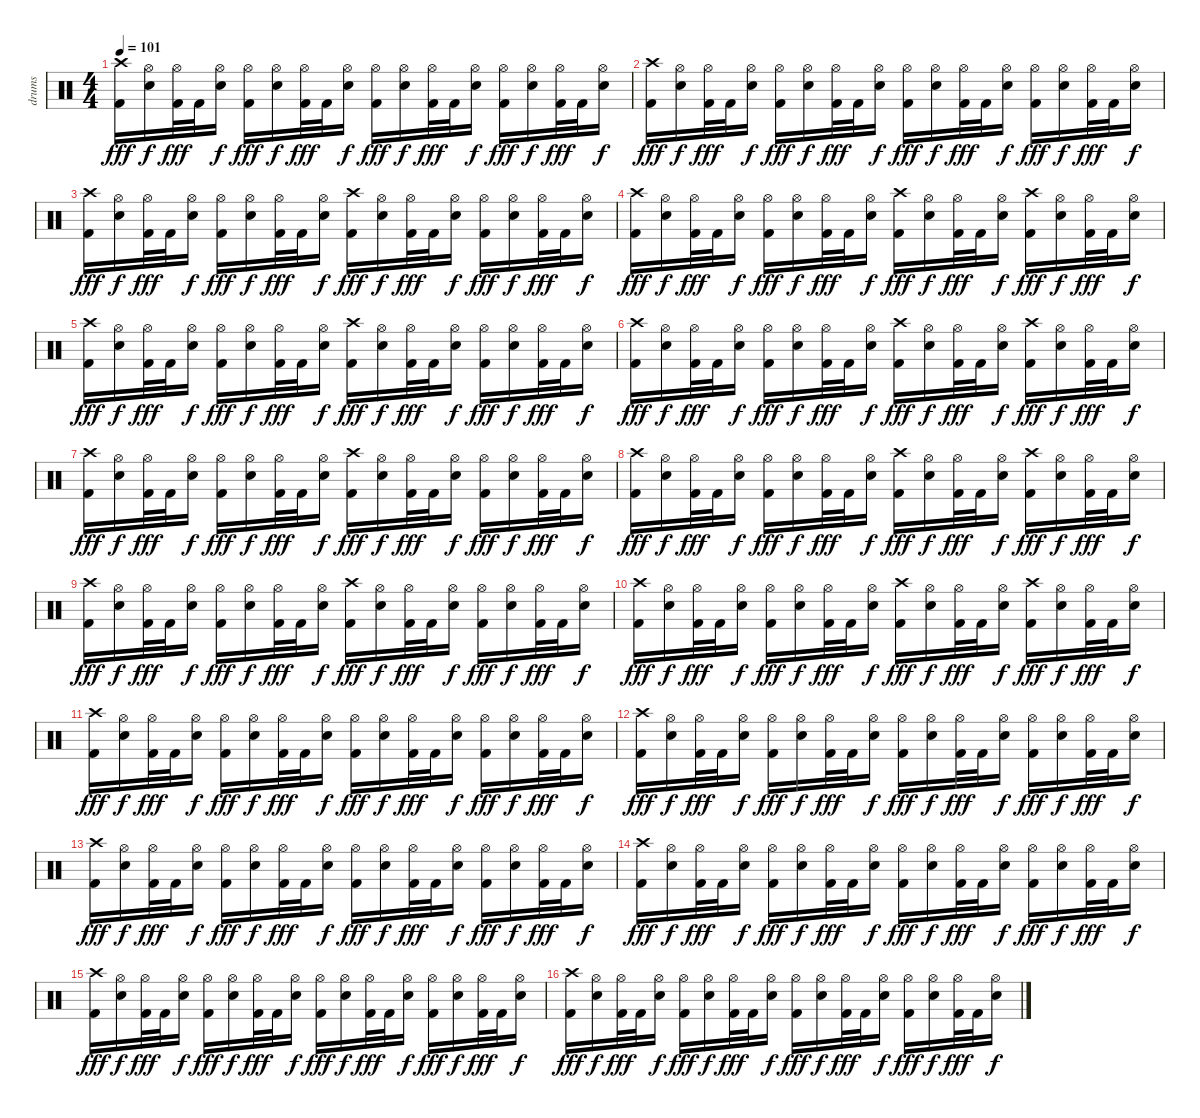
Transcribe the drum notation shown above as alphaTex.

\track ("drums" "drums") {instrument percussion}
\staff {score}
\articulation defaults
\ts (4 4)
\tempo 101
\clef neutral
\ks c
("Crash high (hit)" "Kick (hit) 2").16{dy fff} ("Hi-Hat (open)" "Snare (hit) 2").16{dy f} ("Hi-Hat (open)" "Kick (hit) 2").32{dy fff} "Kick (hit) 2".32 ("Hi-Hat (open)" "Snare (hit) 2").16{dy f} ("Hi-Hat (open)" "Kick (hit) 2").16{dy fff} ("Hi-Hat (open)" "Snare (hit) 2").16{dy f} ("Hi-Hat (open)" "Kick (hit) 2").32{dy fff} "Kick (hit) 2".32 ("Hi-Hat (open)" "Snare (hit) 2").16{dy f} ("Hi-Hat (open)" "Kick (hit) 2").16{dy fff} ("Hi-Hat (open)" "Snare (hit) 2").16{dy f} ("Hi-Hat (open)" "Kick (hit) 2").32{dy fff} "Kick (hit) 2".32 ("Hi-Hat (open)" "Snare (hit) 2").16{dy f} ("Hi-Hat (open)" "Kick (hit) 2").16{dy fff} ("Hi-Hat (open)" "Snare (hit) 2").16{dy f} ("Hi-Hat (open)" "Kick (hit) 2").32{dy fff} "Kick (hit) 2".32 ("Hi-Hat (open)" "Snare (hit) 2").16{dy f} |
("Crash high (hit)" "Kick (hit) 2").16{dy fff} ("Hi-Hat (open)" "Snare (hit) 2").16{dy f} ("Hi-Hat (open)" "Kick (hit) 2").32{dy fff} "Kick (hit) 2".32 ("Hi-Hat (open)" "Snare (hit) 2").16{dy f} ("Hi-Hat (open)" "Kick (hit) 2").16{dy fff} ("Hi-Hat (open)" "Snare (hit) 2").16{dy f} ("Hi-Hat (open)" "Kick (hit) 2").32{dy fff} "Kick (hit) 2".32 ("Hi-Hat (open)" "Snare (hit) 2").16{dy f} ("Hi-Hat (open)" "Kick (hit) 2").16{dy fff} ("Hi-Hat (open)" "Snare (hit) 2").16{dy f} ("Hi-Hat (open)" "Kick (hit) 2").32{dy fff} "Kick (hit) 2".32 ("Hi-Hat (open)" "Snare (hit) 2").16{dy f} ("Hi-Hat (open)" "Kick (hit) 2").16{dy fff} ("Hi-Hat (open)" "Snare (hit) 2").16{dy f} ("Hi-Hat (open)" "Kick (hit) 2").32{dy fff} "Kick (hit) 2".32 ("Hi-Hat (open)" "Snare (hit) 2").16{dy f} |
("Crash high (hit)" "Kick (hit) 2").16{dy fff} ("Hi-Hat (open)" "Snare (hit) 2").16{dy f} ("Hi-Hat (open)" "Kick (hit) 2").32{dy fff} "Kick (hit) 2".32 ("Hi-Hat (open)" "Snare (hit) 2").16{dy f} ("Hi-Hat (open)" "Kick (hit) 2").16{dy fff} ("Hi-Hat (open)" "Snare (hit) 2").16{dy f} ("Hi-Hat (open)" "Kick (hit) 2").32{dy fff} "Kick (hit) 2".32 ("Hi-Hat (open)" "Snare (hit) 2").16{dy f} ("Crash high (hit)" "Kick (hit) 2").16{dy fff} ("Hi-Hat (open)" "Snare (hit) 2").16{dy f} ("Hi-Hat (open)" "Kick (hit) 2").32{dy fff} "Kick (hit) 2".32 ("Hi-Hat (open)" "Snare (hit) 2").16{dy f} ("Hi-Hat (open)" "Kick (hit) 2").16{dy fff} ("Hi-Hat (open)" "Snare (hit) 2").16{dy f} ("Hi-Hat (open)" "Kick (hit) 2").32{dy fff} "Kick (hit) 2".32 ("Hi-Hat (open)" "Snare (hit) 2").16{dy f} |
("Crash high (hit)" "Kick (hit) 2").16{dy fff} ("Hi-Hat (open)" "Snare (hit) 2").16{dy f} ("Hi-Hat (open)" "Kick (hit) 2").32{dy fff} "Kick (hit) 2".32 ("Hi-Hat (open)" "Snare (hit) 2").16{dy f} ("Hi-Hat (open)" "Kick (hit) 2").16{dy fff} ("Hi-Hat (open)" "Snare (hit) 2").16{dy f} ("Hi-Hat (open)" "Kick (hit) 2").32{dy fff} "Kick (hit) 2".32 ("Hi-Hat (open)" "Snare (hit) 2").16{dy f} ("Crash high (hit)" "Kick (hit) 2").16{dy fff} ("Hi-Hat (open)" "Snare (hit) 2").16{dy f} ("Hi-Hat (open)" "Kick (hit) 2").32{dy fff} "Kick (hit) 2".32 ("Hi-Hat (open)" "Snare (hit) 2").16{dy f} ("Crash high (hit)" "Kick (hit) 2").16{dy fff} ("Hi-Hat (open)" "Snare (hit) 2").16{dy f} ("Hi-Hat (open)" "Kick (hit) 2").32{dy fff} "Kick (hit) 2".32 ("Hi-Hat (open)" "Snare (hit) 2").16{dy f} |
("Crash high (hit)" "Kick (hit) 2").16{dy fff} ("Hi-Hat (open)" "Snare (hit) 2").16{dy f} ("Hi-Hat (open)" "Kick (hit) 2").32{dy fff} "Kick (hit) 2".32 ("Hi-Hat (open)" "Snare (hit) 2").16{dy f} ("Hi-Hat (open)" "Kick (hit) 2").16{dy fff} ("Hi-Hat (open)" "Snare (hit) 2").16{dy f} ("Hi-Hat (open)" "Kick (hit) 2").32{dy fff} "Kick (hit) 2".32 ("Hi-Hat (open)" "Snare (hit) 2").16{dy f} ("Crash high (hit)" "Kick (hit) 2").16{dy fff} ("Hi-Hat (open)" "Snare (hit) 2").16{dy f} ("Hi-Hat (open)" "Kick (hit) 2").32{dy fff} "Kick (hit) 2".32 ("Hi-Hat (open)" "Snare (hit) 2").16{dy f} ("Hi-Hat (open)" "Kick (hit) 2").16{dy fff} ("Hi-Hat (open)" "Snare (hit) 2").16{dy f} ("Hi-Hat (open)" "Kick (hit) 2").32{dy fff} "Kick (hit) 2".32 ("Hi-Hat (open)" "Snare (hit) 2").16{dy f} |
("Crash high (hit)" "Kick (hit) 2").16{dy fff} ("Hi-Hat (open)" "Snare (hit) 2").16{dy f} ("Hi-Hat (open)" "Kick (hit) 2").32{dy fff} "Kick (hit) 2".32 ("Hi-Hat (open)" "Snare (hit) 2").16{dy f} ("Hi-Hat (open)" "Kick (hit) 2").16{dy fff} ("Hi-Hat (open)" "Snare (hit) 2").16{dy f} ("Hi-Hat (open)" "Kick (hit) 2").32{dy fff} "Kick (hit) 2".32 ("Hi-Hat (open)" "Snare (hit) 2").16{dy f} ("Crash high (hit)" "Kick (hit) 2").16{dy fff} ("Hi-Hat (open)" "Snare (hit) 2").16{dy f} ("Hi-Hat (open)" "Kick (hit) 2").32{dy fff} "Kick (hit) 2".32 ("Hi-Hat (open)" "Snare (hit) 2").16{dy f} ("Crash high (hit)" "Kick (hit) 2").16{dy fff} ("Hi-Hat (open)" "Snare (hit) 2").16{dy f} ("Hi-Hat (open)" "Kick (hit) 2").32{dy fff} "Kick (hit) 2".32 ("Hi-Hat (open)" "Snare (hit) 2").16{dy f} |
("Crash high (hit)" "Kick (hit) 2").16{dy fff} ("Hi-Hat (open)" "Snare (hit) 2").16{dy f} ("Hi-Hat (open)" "Kick (hit) 2").32{dy fff} "Kick (hit) 2".32 ("Hi-Hat (open)" "Snare (hit) 2").16{dy f} ("Hi-Hat (open)" "Kick (hit) 2").16{dy fff} ("Hi-Hat (open)" "Snare (hit) 2").16{dy f} ("Hi-Hat (open)" "Kick (hit) 2").32{dy fff} "Kick (hit) 2".32 ("Hi-Hat (open)" "Snare (hit) 2").16{dy f} ("Crash high (hit)" "Kick (hit) 2").16{dy fff} ("Hi-Hat (open)" "Snare (hit) 2").16{dy f} ("Hi-Hat (open)" "Kick (hit) 2").32{dy fff} "Kick (hit) 2".32 ("Hi-Hat (open)" "Snare (hit) 2").16{dy f} ("Hi-Hat (open)" "Kick (hit) 2").16{dy fff} ("Hi-Hat (open)" "Snare (hit) 2").16{dy f} ("Hi-Hat (open)" "Kick (hit) 2").32{dy fff} "Kick (hit) 2".32 ("Hi-Hat (open)" "Snare (hit) 2").16{dy f} |
("Crash high (hit)" "Kick (hit) 2").16{dy fff} ("Hi-Hat (open)" "Snare (hit) 2").16{dy f} ("Hi-Hat (open)" "Kick (hit) 2").32{dy fff} "Kick (hit) 2".32 ("Hi-Hat (open)" "Snare (hit) 2").16{dy f} ("Hi-Hat (open)" "Kick (hit) 2").16{dy fff} ("Hi-Hat (open)" "Snare (hit) 2").16{dy f} ("Hi-Hat (open)" "Kick (hit) 2").32{dy fff} "Kick (hit) 2".32 ("Hi-Hat (open)" "Snare (hit) 2").16{dy f} ("Crash high (hit)" "Kick (hit) 2").16{dy fff} ("Hi-Hat (open)" "Snare (hit) 2").16{dy f} ("Hi-Hat (open)" "Kick (hit) 2").32{dy fff} "Kick (hit) 2".32 ("Hi-Hat (open)" "Snare (hit) 2").16{dy f} ("Crash high (hit)" "Kick (hit) 2").16{dy fff} ("Hi-Hat (open)" "Snare (hit) 2").16{dy f} ("Hi-Hat (open)" "Kick (hit) 2").32{dy fff} "Kick (hit) 2".32 ("Hi-Hat (open)" "Snare (hit) 2").16{dy f} |
("Crash high (hit)" "Kick (hit) 2").16{dy fff} ("Hi-Hat (open)" "Snare (hit) 2").16{dy f} ("Hi-Hat (open)" "Kick (hit) 2").32{dy fff} "Kick (hit) 2".32 ("Hi-Hat (open)" "Snare (hit) 2").16{dy f} ("Hi-Hat (open)" "Kick (hit) 2").16{dy fff} ("Hi-Hat (open)" "Snare (hit) 2").16{dy f} ("Hi-Hat (open)" "Kick (hit) 2").32{dy fff} "Kick (hit) 2".32 ("Hi-Hat (open)" "Snare (hit) 2").16{dy f} ("Crash high (hit)" "Kick (hit) 2").16{dy fff} ("Hi-Hat (open)" "Snare (hit) 2").16{dy f} ("Hi-Hat (open)" "Kick (hit) 2").32{dy fff} "Kick (hit) 2".32 ("Hi-Hat (open)" "Snare (hit) 2").16{dy f} ("Hi-Hat (open)" "Kick (hit) 2").16{dy fff} ("Hi-Hat (open)" "Snare (hit) 2").16{dy f} ("Hi-Hat (open)" "Kick (hit) 2").32{dy fff} "Kick (hit) 2".32 ("Hi-Hat (open)" "Snare (hit) 2").16{dy f} |
("Crash high (hit)" "Kick (hit) 2").16{dy fff} ("Hi-Hat (open)" "Snare (hit) 2").16{dy f} ("Hi-Hat (open)" "Kick (hit) 2").32{dy fff} "Kick (hit) 2".32 ("Hi-Hat (open)" "Snare (hit) 2").16{dy f} ("Hi-Hat (open)" "Kick (hit) 2").16{dy fff} ("Hi-Hat (open)" "Snare (hit) 2").16{dy f} ("Hi-Hat (open)" "Kick (hit) 2").32{dy fff} "Kick (hit) 2".32 ("Hi-Hat (open)" "Snare (hit) 2").16{dy f} ("Crash high (hit)" "Kick (hit) 2").16{dy fff} ("Hi-Hat (open)" "Snare (hit) 2").16{dy f} ("Hi-Hat (open)" "Kick (hit) 2").32{dy fff} "Kick (hit) 2".32 ("Hi-Hat (open)" "Snare (hit) 2").16{dy f} ("Crash high (hit)" "Kick (hit) 2").16{dy fff} ("Hi-Hat (open)" "Snare (hit) 2").16{dy f} ("Hi-Hat (open)" "Kick (hit) 2").32{dy fff} "Kick (hit) 2".32 ("Hi-Hat (open)" "Snare (hit) 2").16{dy f} |
("Crash high (hit)" "Kick (hit) 2").16{dy fff} ("Hi-Hat (open)" "Snare (hit) 2").16{dy f} ("Hi-Hat (open)" "Kick (hit) 2").32{dy fff} "Kick (hit) 2".32 ("Hi-Hat (open)" "Snare (hit) 2").16{dy f} ("Hi-Hat (open)" "Kick (hit) 2").16{dy fff} ("Hi-Hat (open)" "Snare (hit) 2").16{dy f} ("Hi-Hat (open)" "Kick (hit) 2").32{dy fff} "Kick (hit) 2".32 ("Hi-Hat (open)" "Snare (hit) 2").16{dy f} ("Hi-Hat (open)" "Kick (hit) 2").16{dy fff} ("Hi-Hat (open)" "Snare (hit) 2").16{dy f} ("Hi-Hat (open)" "Kick (hit) 2").32{dy fff} "Kick (hit) 2".32 ("Hi-Hat (open)" "Snare (hit) 2").16{dy f} ("Hi-Hat (open)" "Kick (hit) 2").16{dy fff} ("Hi-Hat (open)" "Snare (hit) 2").16{dy f} ("Hi-Hat (open)" "Kick (hit) 2").32{dy fff} "Kick (hit) 2".32 ("Hi-Hat (open)" "Snare (hit) 2").16{dy f} |
("Crash high (hit)" "Kick (hit) 2").16{dy fff} ("Hi-Hat (open)" "Snare (hit) 2").16{dy f} ("Hi-Hat (open)" "Kick (hit) 2").32{dy fff} "Kick (hit) 2".32 ("Hi-Hat (open)" "Snare (hit) 2").16{dy f} ("Hi-Hat (open)" "Kick (hit) 2").16{dy fff} ("Hi-Hat (open)" "Snare (hit) 2").16{dy f} ("Hi-Hat (open)" "Kick (hit) 2").32{dy fff} "Kick (hit) 2".32 ("Hi-Hat (open)" "Snare (hit) 2").16{dy f} ("Hi-Hat (open)" "Kick (hit) 2").16{dy fff} ("Hi-Hat (open)" "Snare (hit) 2").16{dy f} ("Hi-Hat (open)" "Kick (hit) 2").32{dy fff} "Kick (hit) 2".32 ("Hi-Hat (open)" "Snare (hit) 2").16{dy f} ("Hi-Hat (open)" "Kick (hit) 2").16{dy fff} ("Hi-Hat (open)" "Snare (hit) 2").16{dy f} ("Hi-Hat (open)" "Kick (hit) 2").32{dy fff} "Kick (hit) 2".32 ("Hi-Hat (open)" "Snare (hit) 2").16{dy f} |
("Crash high (hit)" "Kick (hit) 2").16{dy fff} ("Hi-Hat (open)" "Snare (hit) 2").16{dy f} ("Hi-Hat (open)" "Kick (hit) 2").32{dy fff} "Kick (hit) 2".32 ("Hi-Hat (open)" "Snare (hit) 2").16{dy f} ("Hi-Hat (open)" "Kick (hit) 2").16{dy fff} ("Hi-Hat (open)" "Snare (hit) 2").16{dy f} ("Hi-Hat (open)" "Kick (hit) 2").32{dy fff} "Kick (hit) 2".32 ("Hi-Hat (open)" "Snare (hit) 2").16{dy f} ("Hi-Hat (open)" "Kick (hit) 2").16{dy fff} ("Hi-Hat (open)" "Snare (hit) 2").16{dy f} ("Hi-Hat (open)" "Kick (hit) 2").32{dy fff} "Kick (hit) 2".32 ("Hi-Hat (open)" "Snare (hit) 2").16{dy f} ("Hi-Hat (open)" "Kick (hit) 2").16{dy fff} ("Hi-Hat (open)" "Snare (hit) 2").16{dy f} ("Hi-Hat (open)" "Kick (hit) 2").32{dy fff} "Kick (hit) 2".32 ("Hi-Hat (open)" "Snare (hit) 2").16{dy f} |
("Crash high (hit)" "Kick (hit) 2").16{dy fff} ("Hi-Hat (open)" "Snare (hit) 2").16{dy f} ("Hi-Hat (open)" "Kick (hit) 2").32{dy fff} "Kick (hit) 2".32 ("Hi-Hat (open)" "Snare (hit) 2").16{dy f} ("Hi-Hat (open)" "Kick (hit) 2").16{dy fff} ("Hi-Hat (open)" "Snare (hit) 2").16{dy f} ("Hi-Hat (open)" "Kick (hit) 2").32{dy fff} "Kick (hit) 2".32 ("Hi-Hat (open)" "Snare (hit) 2").16{dy f} ("Hi-Hat (open)" "Kick (hit) 2").16{dy fff} ("Hi-Hat (open)" "Snare (hit) 2").16{dy f} ("Hi-Hat (open)" "Kick (hit) 2").32{dy fff} "Kick (hit) 2".32 ("Hi-Hat (open)" "Snare (hit) 2").16{dy f} ("Hi-Hat (open)" "Kick (hit) 2").16{dy fff} ("Hi-Hat (open)" "Snare (hit) 2").16{dy f} ("Hi-Hat (open)" "Kick (hit) 2").32{dy fff} "Kick (hit) 2".32 ("Hi-Hat (open)" "Snare (hit) 2").16{dy f} |
("Crash high (hit)" "Kick (hit) 2").16{dy fff} ("Hi-Hat (open)" "Snare (hit) 2").16{dy f} ("Hi-Hat (open)" "Kick (hit) 2").32{dy fff} "Kick (hit) 2".32 ("Hi-Hat (open)" "Snare (hit) 2").16{dy f} ("Hi-Hat (open)" "Kick (hit) 2").16{dy fff} ("Hi-Hat (open)" "Snare (hit) 2").16{dy f} ("Hi-Hat (open)" "Kick (hit) 2").32{dy fff} "Kick (hit) 2".32 ("Hi-Hat (open)" "Snare (hit) 2").16{dy f} ("Hi-Hat (open)" "Kick (hit) 2").16{dy fff} ("Hi-Hat (open)" "Snare (hit) 2").16{dy f} ("Hi-Hat (open)" "Kick (hit) 2").32{dy fff} "Kick (hit) 2".32 ("Hi-Hat (open)" "Snare (hit) 2").16{dy f} ("Hi-Hat (open)" "Kick (hit) 2").16{dy fff} ("Hi-Hat (open)" "Snare (hit) 2").16{dy f} ("Hi-Hat (open)" "Kick (hit) 2").32{dy fff} "Kick (hit) 2".32 ("Hi-Hat (open)" "Snare (hit) 2").16{dy f} |
("Crash high (hit)" "Kick (hit) 2").16{dy fff} ("Hi-Hat (open)" "Snare (hit) 2").16{dy f} ("Hi-Hat (open)" "Kick (hit) 2").32{dy fff} "Kick (hit) 2".32 ("Hi-Hat (open)" "Snare (hit) 2").16{dy f} ("Hi-Hat (open)" "Kick (hit) 2").16{dy fff} ("Hi-Hat (open)" "Snare (hit) 2").16{dy f} ("Hi-Hat (open)" "Kick (hit) 2").32{dy fff} "Kick (hit) 2".32 ("Hi-Hat (open)" "Snare (hit) 2").16{dy f} ("Hi-Hat (open)" "Kick (hit) 2").16{dy fff} ("Hi-Hat (open)" "Snare (hit) 2").16{dy f} ("Hi-Hat (open)" "Kick (hit) 2").32{dy fff} "Kick (hit) 2".32 ("Hi-Hat (open)" "Snare (hit) 2").16{dy f} ("Hi-Hat (open)" "Kick (hit) 2").16{dy fff} ("Hi-Hat (open)" "Snare (hit) 2").16{dy f} ("Hi-Hat (open)" "Kick (hit) 2").32{dy fff} "Kick (hit) 2".32 ("Hi-Hat (open)" "Snare (hit) 2").16{dy f}
